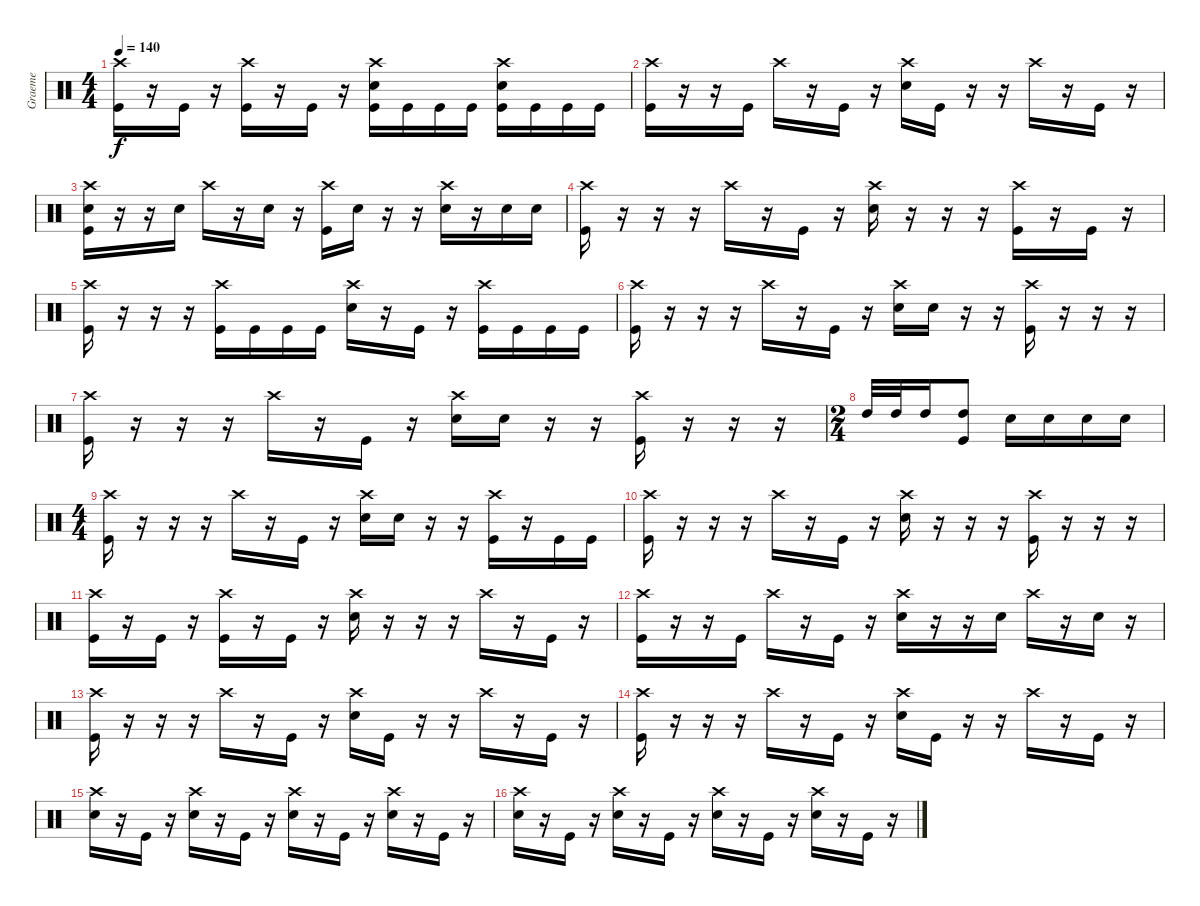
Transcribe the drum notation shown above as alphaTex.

\track ("Graeme" "Graeme") {instrument percussion}
\staff {score}
\articulation defaults
\ts (4 4)
\tempo 140
\clef neutral
\ks c
("Crash high (hit)" "Kick (hit)").16{dy f} r.16 "Kick (hit)".16 r.16 ("Crash high (hit)" "Kick (hit)").16 r.16 "Kick (hit)".16 r.16 ("Crash high (hit)" "Snare (hit) 2" "Kick (hit)").16 "Kick (hit)".16 "Kick (hit)".16 "Kick (hit)".16 ("Crash high (hit)" "Snare (hit) 2" "Kick (hit)").16 "Kick (hit)".16 "Kick (hit)".16 "Kick (hit)".16 |
("Crash high (hit)" "Kick (hit)").16 r.16 r.16 "Kick (hit)".16 "Crash high (hit)".16 r.16 "Kick (hit)".16 r.16 ("Crash high (hit)" "Snare (hit) 2").16 "Kick (hit)".16 r.16 r.16 "Crash high (hit)".16 r.16 "Kick (hit)".16 r.16 |
("Crash high (hit)" "Snare (hit) 2" "Kick (hit)").16 r.16 r.16 "Snare (hit) 2".16 "Crash high (hit)".16 r.16 "Snare (hit) 2".16 r.16 ("Crash high (hit)" "Kick (hit)").16 "Snare (hit) 2".16 r.16 r.16 ("Crash high (hit)" "Snare (hit) 2").16 r.16 "Snare (hit) 2".16 "Snare (hit) 2".16 |
("Crash high (hit)" "Kick (hit)").16 r.16 r.16 r.16 "Crash high (hit)".16 r.16 "Kick (hit)".16 r.16 ("Crash high (hit)" "Snare (hit) 2").16 r.16 r.16 r.16 ("Crash high (hit)" "Kick (hit)").16 r.16 "Kick (hit)".16 r.16 |
("Crash high (hit)" "Kick (hit)").16 r.16 r.16 r.16 ("Crash high (hit)" "Kick (hit)").16 "Kick (hit)".16 "Kick (hit)".16 "Kick (hit)".16 ("Crash high (hit)" "Snare (hit) 2").16 r.16 "Kick (hit)".16 r.16 ("Crash high (hit)" "Kick (hit)").16 "Kick (hit)".16 "Kick (hit)".16 "Kick (hit)".16 |
("Crash high (hit)" "Kick (hit)").16 r.16 r.16 r.16 "Crash high (hit)".16 r.16 "Kick (hit)".16 r.16 ("Crash high (hit)" "Snare (hit) 2").16 "Snare (hit) 2".16 r.16 r.16 ("Crash high (hit)" "Kick (hit)").16 r.16 r.16 r.16 |
("Crash high (hit)" "Kick (hit)").16 r.16 r.16 r.16 "Crash high (hit)".16 r.16 "Kick (hit)".16 r.16 ("Crash high (hit)" "Snare (hit) 2").16 "Snare (hit) 2".16 r.16 r.16 ("Crash high (hit)" "Kick (hit)").16 r.16 r.16 r.16 |
\ts (2 4)
"High Tom (hit)".32 "High Tom (hit)".32 "High Tom (hit)".16 ("High Tom (hit)" "Kick (hit)").8 "Snare (hit) 2".16 "Snare (hit) 2".16 "Snare (hit) 2".16 "Snare (hit) 2".16 |
\ts (4 4)
("Crash high (hit)" "Kick (hit)").16 r.16 r.16 r.16 "Crash high (hit)".16 r.16 "Kick (hit)".16 r.16 ("Crash high (hit)" "Snare (hit) 2").16 "Snare (hit) 2".16 r.16 r.16 ("Crash high (hit)" "Kick (hit)").16 r.16 "Kick (hit)".16 "Kick (hit)".16 |
("Crash high (hit)" "Kick (hit)").16 r.16 r.16 r.16 "Crash high (hit)".16 r.16 "Kick (hit)".16 r.16 ("Crash high (hit)" "Snare (hit) 2").16 r.16 r.16 r.16 ("Crash high (hit)" "Kick (hit)").16 r.16 r.16 r.16 |
("Crash high (hit)" "Kick (hit)").16 r.16 "Kick (hit)".16 r.16 ("Crash high (hit)" "Kick (hit)").16 r.16 "Kick (hit)".16 r.16 ("Crash high (hit)" "Snare (hit) 2").16 r.16 r.16 r.16 "Crash high (hit)".16 r.16 "Kick (hit)".16 r.16 |
("Crash high (hit)" "Kick (hit)").16 r.16 r.16 "Kick (hit)".16 "Crash high (hit)".16 r.16 "Kick (hit)".16 r.16 ("Crash high (hit)" "Snare (hit) 2").16 r.16 r.16 "Snare (hit) 2".16 "Crash high (hit)".16 r.16 "Snare (hit) 2".16 r.16 |
("Crash high (hit)" "Kick (hit)").16 r.16 r.16 r.16 "Crash high (hit)".16 r.16 "Kick (hit)".16 r.16 ("Crash high (hit)" "Snare (hit) 2").16 "Kick (hit)".16 r.16 r.16 "Crash high (hit)".16 r.16 "Kick (hit)".16 r.16 |
("Crash high (hit)" "Kick (hit)").16 r.16 r.16 r.16 "Crash high (hit)".16 r.16 "Kick (hit)".16 r.16 ("Crash high (hit)" "Snare (hit) 2").16 "Kick (hit)".16 r.16 r.16 "Crash high (hit)".16 r.16 "Kick (hit)".16 r.16 |
("Crash high (hit)" "Snare (hit) 2").16 r.16 "Kick (hit)".16 r.16 ("Crash high (hit)" "Snare (hit) 2").16 r.16 "Kick (hit)".16 r.16 ("Crash high (hit)" "Snare (hit) 2").16 r.16 "Kick (hit)".16 r.16 ("Crash high (hit)" "Snare (hit) 2").16 r.16 "Kick (hit)".16 r.16 |
("Crash high (hit)" "Snare (hit) 2").16 r.16 "Kick (hit)".16 r.16 ("Crash high (hit)" "Snare (hit) 2").16 r.16 "Kick (hit)".16 r.16 ("Crash high (hit)" "Snare (hit) 2").16 r.16 "Kick (hit)".16 r.16 ("Crash high (hit)" "Snare (hit) 2").16 r.16 "Kick (hit)".16 r.16
